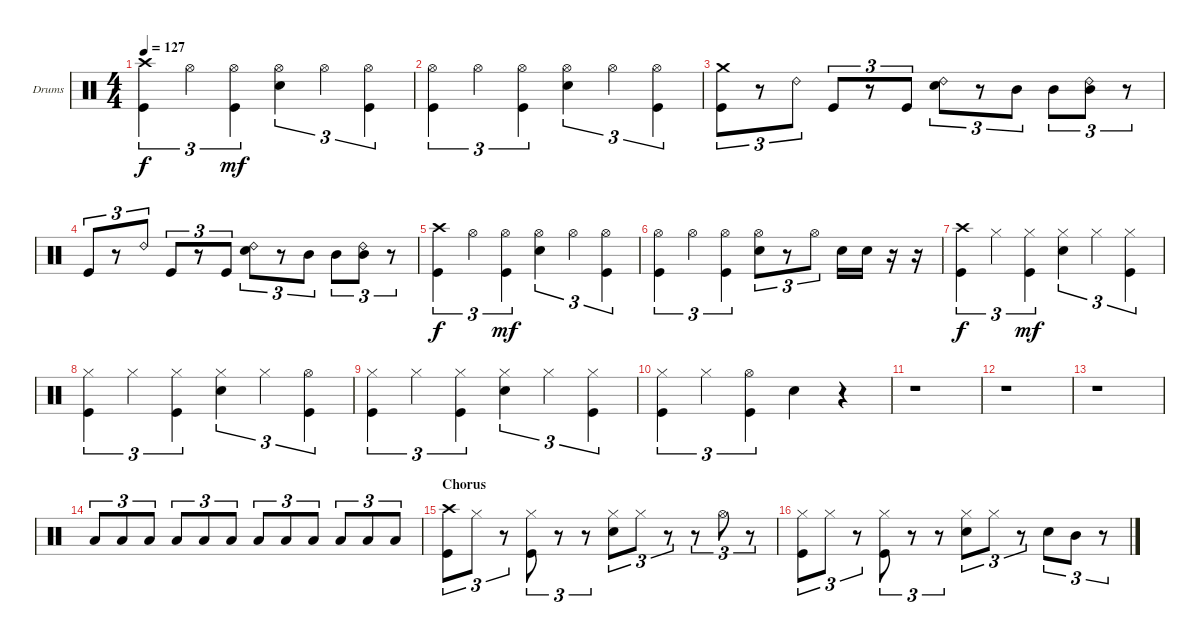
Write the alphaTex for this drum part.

\bracketExtendMode groupsimilarinstruments
\firstSystemTrackNameOrientation horizontal
\otherSystemsTrackNameOrientation horizontal
\track ("Drumkit" "Drums") {instrument percussion}
\staff {score}
\articulation defaults
\ts (4 4)
\tempo 127
\clef neutral
\ks c
("Kick (hit)" "Crash high (hit)").4{tu (3 2) dy f} "Hi-Hat (open)".4{tu (3 2)} ("Hi-Hat (open)" "Kick (hit)").4{tu (3 2) dy mf} ("Hi-Hat (open)" "Snare (hit) 2").4{tu (3 2)} "Hi-Hat (open)".4{tu (3 2)} ("Hi-Hat (open)" "Kick (hit)").4{tu (3 2)} |
("Kick (hit)" "Hi-Hat (open)").4{tu (3 2)} "Hi-Hat (open)".4{tu (3 2)} ("Hi-Hat (open)" "Kick (hit)").4{tu (3 2)} ("Hi-Hat (open)" "Snare (hit) 2").4{tu (3 2)} "Hi-Hat (open)".4{tu (3 2)} ("Hi-Hat (open)" "Kick (hit)").4{tu (3 2)} |
("Kick (hit)" "Crash medium (hit)").8{tu (3 2)} r.8{tu (3 2)} "Ride (bell) 2".8{tu (3 2)} "Kick (hit)".8{tu (3 2)} r.8{tu (3 2)} "Kick (hit)".8{tu (3 2)} ("Ride (bell) 2" "Snare (hit) 2").8{tu (3 2)} r.8{tu (3 2)} "Mid Tom (hit)".8{tu (3 2)} "Mid Tom (hit)".8{tu (3 2)} ("Ride (bell) 2" "Mid Tom (hit)").8{tu (3 2)} r.8{tu (3 2)} |
"Kick (hit)".8{tu (3 2)} r.8{tu (3 2)} "Ride (bell) 2".8{tu (3 2)} "Kick (hit)".8{tu (3 2)} r.8{tu (3 2)} "Kick (hit)".8{tu (3 2)} ("Ride (bell) 2" "Snare (hit) 2").8{tu (3 2)} r.8{tu (3 2)} "Mid Tom (hit)".8{tu (3 2)} "Mid Tom (hit)".8{tu (3 2)} ("Ride (bell) 2" "Mid Tom (hit)").8{tu (3 2)} r.8{tu (3 2)} |
("Crash high (hit)" "Kick (hit)").4{tu (3 2) dy f} "Hi-Hat (open)".4{tu (3 2)} ("Hi-Hat (open)" "Kick (hit)").4{tu (3 2) dy mf} ("Hi-Hat (open)" "Snare (hit) 2").4{tu (3 2)} "Hi-Hat (open)".4{tu (3 2)} ("Hi-Hat (open)" "Kick (hit)").4{tu (3 2)} |
("Kick (hit)" "Hi-Hat (open)").4{tu (3 2)} "Hi-Hat (open)".4{tu (3 2)} ("Hi-Hat (open)" "Kick (hit)").4{tu (3 2)} ("Snare (hit) 2" "Hi-Hat (open)").8{tu (3 2)} r.8{tu (3 2)} "Hi-Hat (open)".8{tu (3 2)} "Snare (hit) 2".16 "Snare (hit) 2".16 r.16 r.16 |
("Crash high (hit)" "Kick (hit)").4{tu (3 2) dy f} "Hi-Hat (closed)".4{tu (3 2)} ("Hi-Hat (closed)" "Kick (hit)").4{tu (3 2) dy mf} ("Hi-Hat (closed)" "Snare (hit) 2").4{tu (3 2)} "Hi-Hat (closed)".4{tu (3 2)} ("Hi-Hat (closed)" "Kick (hit)").4{tu (3 2)} |
("Kick (hit)" "Hi-Hat (closed)").4{tu (3 2)} "Hi-Hat (closed)".4{tu (3 2)} ("Hi-Hat (closed)" "Kick (hit)").4{tu (3 2)} ("Hi-Hat (closed)" "Snare (hit) 2").4{tu (3 2)} "Hi-Hat (closed)".4{tu (3 2)} ("Hi-Hat (open)" "Kick (hit)").4{tu (3 2)} |
("Kick (hit)" "Hi-Hat (closed)").4{tu (3 2)} "Hi-Hat (closed)".4{tu (3 2)} ("Hi-Hat (closed)" "Kick (hit)").4{tu (3 2)} ("Hi-Hat (closed)" "Snare (hit) 2").4{tu (3 2)} "Hi-Hat (closed)".4{tu (3 2)} ("Hi-Hat (closed)" "Kick (hit)").4{tu (3 2)} |
("Kick (hit)" "Hi-Hat (closed)").4{tu (3 2)} "Hi-Hat (closed)".4{tu (3 2)} ("Hi-Hat (open)" "Kick (hit)").4{tu (3 2)} "Snare (hit) 2".4 r.4 |
r.1 |
r.1 |
r.1 |
"Low Tom (hit)".8{tu (3 2)} "Low Tom (hit)".8{tu (3 2)} "Low Tom (hit)".8{tu (3 2)} "Low Tom (hit)".8{tu (3 2)} "Low Tom (hit)".8{tu (3 2)} "Low Tom (hit)".8{tu (3 2)} "Low Tom (hit)".8{tu (3 2)} "Low Tom (hit)".8{tu (3 2)} "Low Tom (hit)".8{tu (3 2)} "Low Tom (hit)".8{tu (3 2)} "Low Tom (hit)".8{tu (3 2)} "Low Tom (hit)".8{tu (3 2)} |
\section ("" "Chorus")
("Kick (hit)" "Crash high (hit)").8{tu (3 2)} "Hi-Hat (closed)".8{tu (3 2)} r.8{tu (3 2)} ("Hi-Hat (closed)" "Kick (hit)").8{tu (3 2)} r.8{tu (3 2)} r.8{tu (3 2)} ("Snare (hit) 2" "Hi-Hat (closed)").8{tu (3 2)} "Hi-Hat (closed)".8{tu (3 2)} r.8{tu (3 2)} r.8{tu (3 2)} "Hi-Hat (open)".8{tu (3 2)} r.8{tu (3 2)} |
("Kick (hit)" "Hi-Hat (closed)").8{tu (3 2)} "Hi-Hat (closed)".8{tu (3 2)} r.8{tu (3 2)} ("Hi-Hat (closed)" "Kick (hit)").8{tu (3 2)} r.8{tu (3 2)} r.8{tu (3 2)} ("Hi-Hat (closed)" "Snare (hit) 2").8{tu (3 2)} "Hi-Hat (closed)".8{tu (3 2)} r.8{tu (3 2)} "Snare (hit) 2".8{tu (3 2)} "Mid Tom (hit)".8{tu (3 2)} r.8{tu (3 2)}
